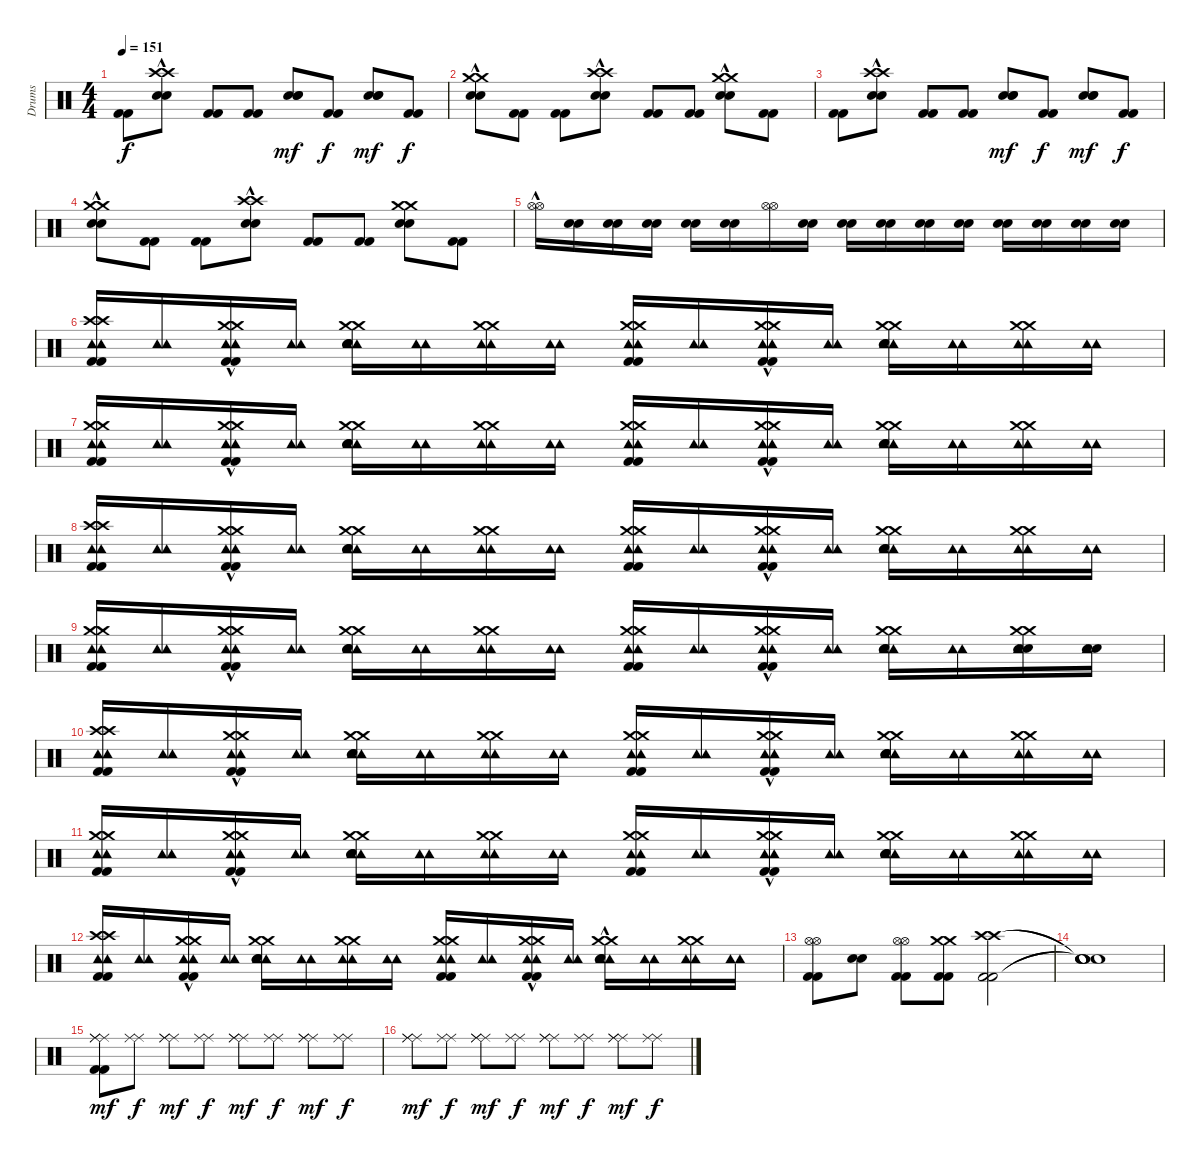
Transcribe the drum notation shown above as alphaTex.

\track ("Drums" "Drums") {instrument percussion}
\staff {score}
\articulation defaults
\ts (4 4)
\tempo 151
\clef neutral
\ks c
("Kick (hit) 2" "Kick (hit) 2").8{dy f} ("Electric Snare (hit)"{hac} "Electric Snare (hit)"{hac} "Crash high (hit)" "Crash high (hit)").8 ("Kick (hit) 2" "Kick (hit) 2").8 ("Kick (hit) 2" "Kick (hit) 2").8 ("Electric Snare (hit)" "Electric Snare (hit)" "Electric Snare (hit)").8{dy mf} ("Kick (hit) 2" "Kick (hit) 2").8{dy f} ("Electric Snare (hit)" "Electric Snare (hit)" "Electric Snare (hit)").8{dy mf} ("Kick (hit) 2" "Kick (hit) 2").8{dy f} |
("Electric Snare (hit)"{hac} "Electric Snare (hit)"{hac} "Crash medium (hit)"{hac} "Crash medium (hit)"{hac}).8 ("Kick (hit) 2" "Kick (hit) 2").8 ("Kick (hit) 2" "Kick (hit) 2").8 ("Electric Snare (hit)"{hac} "Electric Snare (hit)"{hac} "Crash high (hit)"{hac} "Crash high (hit)"{hac}).8 ("Kick (hit) 2" "Kick (hit) 2").8 ("Kick (hit) 2" "Kick (hit) 2").8 ("Electric Snare (hit)"{hac} "Electric Snare (hit)"{hac} "Crash medium (hit)" "Crash medium (hit)").8 ("Kick (hit) 2" "Kick (hit) 2").8 |
("Kick (hit) 2" "Kick (hit) 2").8 ("Electric Snare (hit)"{hac} "Electric Snare (hit)"{hac} "Crash high (hit)" "Crash high (hit)").8 ("Kick (hit) 2" "Kick (hit) 2").8 ("Kick (hit) 2" "Kick (hit) 2").8 ("Electric Snare (hit)" "Electric Snare (hit)" "Electric Snare (hit)").8{dy mf} ("Kick (hit) 2" "Kick (hit) 2").8{dy f} ("Electric Snare (hit)" "Electric Snare (hit)" "Electric Snare (hit)").8{dy mf} ("Kick (hit) 2" "Kick (hit) 2").8{dy f} |
("Electric Snare (hit)"{hac} "Electric Snare (hit)"{hac} "Crash medium (hit)"{hac} "Crash medium (hit)"{hac}).8 ("Kick (hit) 2" "Kick (hit) 2").8 ("Kick (hit) 2" "Kick (hit) 2").8 ("Electric Snare (hit)"{hac} "Electric Snare (hit)"{hac} "Crash high (hit)" "Crash high (hit)").8 ("Kick (hit) 2" "Kick (hit) 2").8 ("Kick (hit) 2" "Kick (hit) 2").8 ("Electric Snare (hit)" "Electric Snare (hit)" "Crash medium (hit)" "Crash medium (hit)").8 ("Kick (hit) 2" "Kick (hit) 2").8 |
("Hi-Hat (open)"{hac} "Hi-Hat (open)"{hac}).16 ("Electric Snare (hit)" "Electric Snare (hit)").16 ("Electric Snare (hit)" "Electric Snare (hit)").16 ("Electric Snare (hit)" "Electric Snare (hit)").16 ("Electric Snare (hit)" "Electric Snare (hit)").16 ("Electric Snare (hit)" "Electric Snare (hit)").16 ("Hi-Hat (open)" "Hi-Hat (open)").16 ("Electric Snare (hit)" "Electric Snare (hit)").16 ("Electric Snare (hit)" "Electric Snare (hit)").16 ("Electric Snare (hit)" "Electric Snare (hit)").16 ("Electric Snare (hit)" "Electric Snare (hit)").16 ("Electric Snare (hit)" "Electric Snare (hit)").16 ("Electric Snare (hit)" "Electric Snare (hit)").16 ("Electric Snare (hit)" "Electric Snare (hit)").16 ("Electric Snare (hit)" "Electric Snare (hit)").16 ("Electric Snare (hit)" "Electric Snare (hit)").16 |
("Kick (hit) 2" "Kick (hit) 2" "Tambourine (hit)" "Tambourine (hit)" "Crash high (hit)" "Crash high (hit)").16 ("Tambourine (hit)" "Tambourine (hit)").16 ("Kick (hit) 2"{hac} "Kick (hit) 2"{hac} "Tambourine (hit)" "Tambourine (hit)" "Crash medium (hit)" "Crash medium (hit)").16 ("Tambourine (hit)" "Tambourine (hit)").16 ("Tambourine (hit)" "Electric Snare (hit)" "Electric Snare (hit)" "Tambourine (hit)" "Crash medium (hit)" "Crash medium (hit)").16 ("Tambourine (hit)" "Tambourine (hit)").16 ("Tambourine (hit)" "Tambourine (hit)" "Crash medium (hit)" "Crash medium (hit)").16 ("Tambourine (hit)" "Tambourine (hit)").16 ("Kick (hit) 2" "Kick (hit) 2" "Tambourine (hit)" "Tambourine (hit)" "Crash medium (hit)" "Crash medium (hit)").16 ("Tambourine (hit)" "Tambourine (hit)").16 ("Kick (hit) 2"{hac} "Kick (hit) 2"{hac} "Tambourine (hit)" "Tambourine (hit)" "Crash medium (hit)" "Crash medium (hit)").16 ("Tambourine (hit)" "Tambourine (hit)").16 ("Tambourine (hit)" "Electric Snare (hit)" "Electric Snare (hit)" "Tambourine (hit)" "Crash medium (hit)" "Crash medium (hit)").16 ("Tambourine (hit)" "Tambourine (hit)").16 ("Tambourine (hit)" "Tambourine (hit)" "Crash medium (hit)" "Crash medium (hit)").16 ("Tambourine (hit)" "Tambourine (hit)").16 |
("Kick (hit) 2" "Kick (hit) 2" "Tambourine (hit)" "Tambourine (hit)" "Crash medium (hit)" "Crash medium (hit)").16 ("Tambourine (hit)" "Tambourine (hit)").16 ("Kick (hit) 2"{hac} "Kick (hit) 2"{hac} "Tambourine (hit)" "Tambourine (hit)" "Crash medium (hit)" "Crash medium (hit)").16 ("Tambourine (hit)" "Tambourine (hit)").16 ("Tambourine (hit)" "Electric Snare (hit)" "Electric Snare (hit)" "Tambourine (hit)" "Crash medium (hit)" "Crash medium (hit)").16 ("Tambourine (hit)" "Tambourine (hit)").16 ("Tambourine (hit)" "Tambourine (hit)" "Crash medium (hit)" "Crash medium (hit)").16 ("Tambourine (hit)" "Tambourine (hit)").16 ("Kick (hit) 2" "Kick (hit) 2" "Tambourine (hit)" "Tambourine (hit)" "Crash medium (hit)" "Crash medium (hit)").16 ("Tambourine (hit)" "Tambourine (hit)").16 ("Kick (hit) 2"{hac} "Kick (hit) 2"{hac} "Tambourine (hit)" "Tambourine (hit)" "Crash medium (hit)" "Crash medium (hit)").16 ("Tambourine (hit)" "Tambourine (hit)").16 ("Tambourine (hit)" "Electric Snare (hit)" "Electric Snare (hit)" "Tambourine (hit)" "Crash medium (hit)" "Crash medium (hit)").16 ("Tambourine (hit)" "Tambourine (hit)").16 ("Tambourine (hit)" "Tambourine (hit)" "Crash medium (hit)" "Crash medium (hit)").16 ("Tambourine (hit)" "Tambourine (hit)").16 |
("Kick (hit) 2" "Kick (hit) 2" "Tambourine (hit)" "Tambourine (hit)" "Crash high (hit)" "Crash high (hit)").16 ("Tambourine (hit)" "Tambourine (hit)").16 ("Kick (hit) 2"{hac} "Kick (hit) 2"{hac} "Tambourine (hit)" "Tambourine (hit)" "Crash medium (hit)" "Crash medium (hit)").16 ("Tambourine (hit)" "Tambourine (hit)").16 ("Tambourine (hit)" "Electric Snare (hit)" "Electric Snare (hit)" "Tambourine (hit)" "Crash medium (hit)" "Crash medium (hit)").16 ("Tambourine (hit)" "Tambourine (hit)").16 ("Tambourine (hit)" "Tambourine (hit)" "Crash medium (hit)" "Crash medium (hit)").16 ("Tambourine (hit)" "Tambourine (hit)").16 ("Kick (hit) 2" "Kick (hit) 2" "Tambourine (hit)" "Tambourine (hit)" "Crash medium (hit)" "Crash medium (hit)").16 ("Tambourine (hit)" "Tambourine (hit)").16 ("Kick (hit) 2"{hac} "Kick (hit) 2"{hac} "Tambourine (hit)" "Tambourine (hit)" "Crash medium (hit)" "Crash medium (hit)").16 ("Tambourine (hit)" "Tambourine (hit)").16 ("Tambourine (hit)" "Electric Snare (hit)" "Electric Snare (hit)" "Tambourine (hit)" "Crash medium (hit)" "Crash medium (hit)").16 ("Tambourine (hit)" "Tambourine (hit)").16 ("Tambourine (hit)" "Tambourine (hit)" "Crash medium (hit)" "Crash medium (hit)").16 ("Tambourine (hit)" "Tambourine (hit)").16 |
("Kick (hit) 2" "Kick (hit) 2" "Tambourine (hit)" "Tambourine (hit)" "Crash medium (hit)" "Crash medium (hit)").16 ("Tambourine (hit)" "Tambourine (hit)").16 ("Kick (hit) 2"{hac} "Kick (hit) 2"{hac} "Tambourine (hit)" "Tambourine (hit)" "Crash medium (hit)" "Crash medium (hit)").16 ("Tambourine (hit)" "Tambourine (hit)").16 ("Tambourine (hit)" "Electric Snare (hit)" "Electric Snare (hit)" "Tambourine (hit)" "Crash medium (hit)" "Crash medium (hit)").16 ("Tambourine (hit)" "Tambourine (hit)").16 ("Tambourine (hit)" "Tambourine (hit)" "Crash medium (hit)" "Crash medium (hit)").16 ("Tambourine (hit)" "Tambourine (hit)").16 ("Kick (hit) 2" "Kick (hit) 2" "Tambourine (hit)" "Tambourine (hit)" "Crash medium (hit)" "Crash medium (hit)").16 ("Tambourine (hit)" "Tambourine (hit)").16 ("Kick (hit) 2"{hac} "Kick (hit) 2"{hac} "Tambourine (hit)" "Tambourine (hit)" "Crash medium (hit)" "Crash medium (hit)").16 ("Tambourine (hit)" "Tambourine (hit)").16 ("Tambourine (hit)" "Electric Snare (hit)" "Electric Snare (hit)" "Tambourine (hit)" "Crash medium (hit)" "Crash medium (hit)").16 ("Tambourine (hit)" "Tambourine (hit)").16 ("Electric Snare (hit)" "Tambourine (hit)" "Tambourine (hit)" "Electric Snare (hit)" "Crash medium (hit)" "Crash medium (hit)").16 ("Electric Snare (hit)" "Tambourine (hit)" "Tambourine (hit)" "Electric Snare (hit)").16 |
("Kick (hit) 2" "Kick (hit) 2" "Tambourine (hit)" "Tambourine (hit)" "Crash high (hit)" "Crash high (hit)").16 ("Tambourine (hit)" "Tambourine (hit)").16 ("Kick (hit) 2"{hac} "Kick (hit) 2"{hac} "Tambourine (hit)" "Tambourine (hit)" "Crash medium (hit)" "Crash medium (hit)").16 ("Tambourine (hit)" "Tambourine (hit)").16 ("Tambourine (hit)" "Electric Snare (hit)" "Electric Snare (hit)" "Tambourine (hit)" "Crash medium (hit)" "Crash medium (hit)").16 ("Tambourine (hit)" "Tambourine (hit)").16 ("Tambourine (hit)" "Tambourine (hit)" "Crash medium (hit)" "Crash medium (hit)").16 ("Tambourine (hit)" "Tambourine (hit)").16 ("Kick (hit) 2" "Kick (hit) 2" "Tambourine (hit)" "Tambourine (hit)" "Crash medium (hit)" "Crash medium (hit)").16 ("Tambourine (hit)" "Tambourine (hit)").16 ("Kick (hit) 2"{hac} "Kick (hit) 2"{hac} "Tambourine (hit)" "Tambourine (hit)" "Crash medium (hit)" "Crash medium (hit)").16 ("Tambourine (hit)" "Tambourine (hit)").16 ("Tambourine (hit)" "Electric Snare (hit)" "Electric Snare (hit)" "Tambourine (hit)" "Crash medium (hit)" "Crash medium (hit)").16 ("Tambourine (hit)" "Tambourine (hit)").16 ("Tambourine (hit)" "Tambourine (hit)" "Crash medium (hit)" "Crash medium (hit)").16 ("Tambourine (hit)" "Tambourine (hit)").16 |
("Kick (hit) 2" "Kick (hit) 2" "Tambourine (hit)" "Tambourine (hit)" "Crash medium (hit)" "Crash medium (hit)").16 ("Tambourine (hit)" "Tambourine (hit)").16 ("Kick (hit) 2"{hac} "Kick (hit) 2"{hac} "Tambourine (hit)" "Tambourine (hit)" "Crash medium (hit)" "Crash medium (hit)").16 ("Tambourine (hit)" "Tambourine (hit)").16 ("Tambourine (hit)" "Electric Snare (hit)" "Electric Snare (hit)" "Tambourine (hit)" "Crash medium (hit)" "Crash medium (hit)").16 ("Tambourine (hit)" "Tambourine (hit)").16 ("Tambourine (hit)" "Tambourine (hit)" "Crash medium (hit)" "Crash medium (hit)").16 ("Tambourine (hit)" "Tambourine (hit)").16 ("Kick (hit) 2" "Kick (hit) 2" "Tambourine (hit)" "Tambourine (hit)" "Crash medium (hit)" "Crash medium (hit)").16 ("Tambourine (hit)" "Tambourine (hit)").16 ("Kick (hit) 2"{hac} "Kick (hit) 2"{hac} "Tambourine (hit)" "Tambourine (hit)" "Crash medium (hit)" "Crash medium (hit)").16 ("Tambourine (hit)" "Tambourine (hit)").16 ("Tambourine (hit)" "Electric Snare (hit)" "Electric Snare (hit)" "Tambourine (hit)" "Crash medium (hit)" "Crash medium (hit)").16 ("Tambourine (hit)" "Tambourine (hit)").16 ("Tambourine (hit)" "Tambourine (hit)" "Crash medium (hit)" "Crash medium (hit)").16 ("Tambourine (hit)" "Tambourine (hit)").16 |
("Kick (hit) 2" "Kick (hit) 2" "Tambourine (hit)" "Tambourine (hit)" "Crash high (hit)" "Crash high (hit)").16 ("Tambourine (hit)" "Tambourine (hit)").16 ("Kick (hit) 2"{hac} "Kick (hit) 2"{hac} "Tambourine (hit)" "Tambourine (hit)" "Crash medium (hit)" "Crash medium (hit)").16 ("Tambourine (hit)" "Tambourine (hit)").16 ("Tambourine (hit)" "Electric Snare (hit)" "Electric Snare (hit)" "Tambourine (hit)" "Crash medium (hit)" "Crash medium (hit)").16 ("Tambourine (hit)" "Tambourine (hit)").16 ("Tambourine (hit)" "Tambourine (hit)" "Crash medium (hit)" "Crash medium (hit)").16 ("Tambourine (hit)" "Tambourine (hit)").16 ("Kick (hit) 2" "Kick (hit) 2" "Tambourine (hit)" "Tambourine (hit)" "Crash medium (hit)" "Crash medium (hit)").16 ("Tambourine (hit)" "Tambourine (hit)").16 ("Kick (hit) 2"{hac} "Kick (hit) 2"{hac} "Tambourine (hit)" "Tambourine (hit)" "Crash medium (hit)" "Crash medium (hit)").16 ("Tambourine (hit)" "Tambourine (hit)").16 ("Tambourine (hit)" "Electric Snare (hit)"{hac} "Electric Snare (hit)"{hac} "Tambourine (hit)" "Crash medium (hit)" "Crash medium (hit)").16 ("Tambourine (hit)" "Tambourine (hit)").16 ("Tambourine (hit)" "Tambourine (hit)" "Crash medium (hit)" "Crash medium (hit)").16 ("Tambourine (hit)" "Tambourine (hit)").16 |
("Kick (hit) 2" "Kick (hit) 2" "Hi-Hat (open)" "Hi-Hat (open)").8 ("Electric Snare (hit)" "Electric Snare (hit)").8 ("Kick (hit) 2" "Kick (hit) 2" "Hi-Hat (open)" "Hi-Hat (open)").8 ("Kick (hit) 2" "Kick (hit) 2" "Crash medium (hit)" "Crash medium (hit)").8 ("Kick (hit) 2" "Kick (hit) 2" "Crash high (hit)" "Crash high (hit)").2 |
("Snare (hit)"{t} "Snare (hit)"{t} "Snare (hit)"{t} "Snare (hit)"{t}).1 |
("Kick (hit) 2" "Kick (hit) 2" "Ride (middle)" "Ride (middle)" "Ride (middle)").8{dy mf} ("Ride (middle)" "Ride (middle)").8{dy f} ("Ride (middle)" "Ride (middle)" "Ride (middle)").8{dy mf} ("Ride (middle)" "Ride (middle)").8{dy f} ("Ride (middle)" "Ride (middle)" "Ride (middle)").8{dy mf} ("Ride (middle)" "Ride (middle)").8{dy f} ("Ride (middle)" "Ride (middle)" "Ride (middle)").8{dy mf} ("Ride (middle)" "Ride (middle)").8{dy f} |
("Ride (middle)" "Ride (middle)" "Ride (middle)").8{dy mf} ("Ride (middle)" "Ride (middle)").8{dy f} ("Ride (middle)" "Ride (middle)" "Ride (middle)").8{dy mf} ("Ride (middle)" "Ride (middle)").8{dy f} ("Ride (middle)" "Ride (middle)" "Ride (middle)").8{dy mf} ("Ride (middle)" "Ride (middle)").8{dy f} ("Ride (middle)" "Ride (middle)" "Ride (middle)").8{dy mf} ("Ride (middle)" "Ride (middle)").8{dy f}
